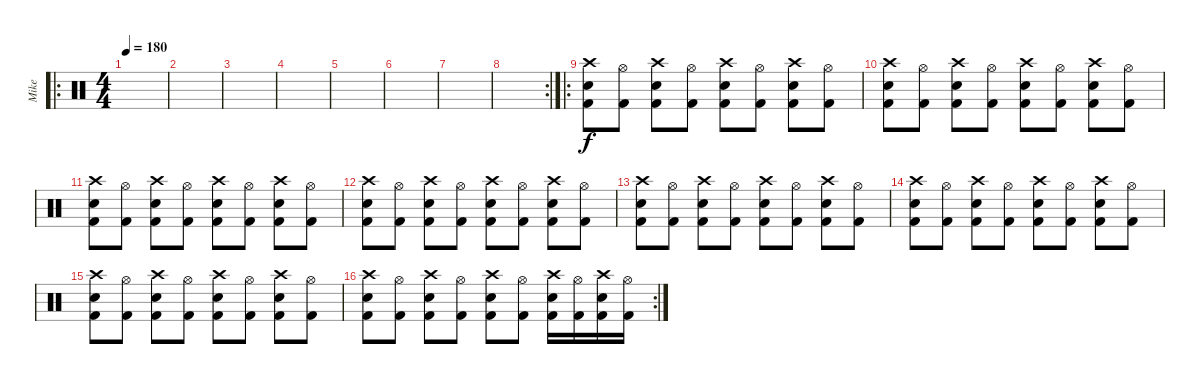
\track ("Mike" "Mike") {instrument percussion}
\staff {score}
\articulation defaults
\ro
\ts (4 4)
\tempo 180
\clef neutral
\ks c
|
|
|
|
|
|
|
\rc 2
|
\ro
("Crash high (hit)" "Electric Snare (hit)" "Kick (hit) 2").8 ("Hi-Hat (open)" "Kick (hit) 2").8 ("Crash high (hit)" "Electric Snare (hit)" "Kick (hit) 2").8 ("Hi-Hat (open)" "Kick (hit) 2").8 ("Crash high (hit)" "Electric Snare (hit)" "Kick (hit) 2").8 ("Hi-Hat (open)" "Kick (hit) 2").8 ("Crash high (hit)" "Electric Snare (hit)" "Kick (hit) 2").8 ("Hi-Hat (open)" "Kick (hit) 2").8 |
("Crash high (hit)" "Electric Snare (hit)" "Kick (hit) 2").8 ("Hi-Hat (open)" "Kick (hit) 2").8 ("Crash high (hit)" "Electric Snare (hit)" "Kick (hit) 2").8 ("Hi-Hat (open)" "Kick (hit) 2").8 ("Crash high (hit)" "Electric Snare (hit)" "Kick (hit) 2").8 ("Hi-Hat (open)" "Kick (hit) 2").8 ("Crash high (hit)" "Electric Snare (hit)" "Kick (hit) 2").8 ("Hi-Hat (open)" "Kick (hit) 2").8 |
("Crash high (hit)" "Electric Snare (hit)" "Kick (hit) 2").8 ("Hi-Hat (open)" "Kick (hit) 2").8 ("Crash high (hit)" "Electric Snare (hit)" "Kick (hit) 2").8 ("Hi-Hat (open)" "Kick (hit) 2").8 ("Crash high (hit)" "Electric Snare (hit)" "Kick (hit) 2").8 ("Hi-Hat (open)" "Kick (hit) 2").8 ("Crash high (hit)" "Electric Snare (hit)" "Kick (hit) 2").8 ("Hi-Hat (open)" "Kick (hit) 2").8 |
("Crash high (hit)" "Electric Snare (hit)" "Kick (hit) 2").8 ("Hi-Hat (open)" "Kick (hit) 2").8 ("Crash high (hit)" "Electric Snare (hit)" "Kick (hit) 2").8 ("Hi-Hat (open)" "Kick (hit) 2").8 ("Crash high (hit)" "Electric Snare (hit)" "Kick (hit) 2").8 ("Hi-Hat (open)" "Kick (hit) 2").8 ("Crash high (hit)" "Electric Snare (hit)" "Kick (hit) 2").8 ("Hi-Hat (open)" "Kick (hit) 2").8 |
("Crash high (hit)" "Electric Snare (hit)" "Kick (hit) 2").8 ("Hi-Hat (open)" "Kick (hit) 2").8 ("Crash high (hit)" "Electric Snare (hit)" "Kick (hit) 2").8 ("Hi-Hat (open)" "Kick (hit) 2").8 ("Crash high (hit)" "Electric Snare (hit)" "Kick (hit) 2").8 ("Hi-Hat (open)" "Kick (hit) 2").8 ("Crash high (hit)" "Electric Snare (hit)" "Kick (hit) 2").8 ("Hi-Hat (open)" "Kick (hit) 2").8 |
("Crash high (hit)" "Electric Snare (hit)" "Kick (hit) 2").8 ("Hi-Hat (open)" "Kick (hit) 2").8 ("Crash high (hit)" "Electric Snare (hit)" "Kick (hit) 2").8 ("Hi-Hat (open)" "Kick (hit) 2").8 ("Crash high (hit)" "Electric Snare (hit)" "Kick (hit) 2").8 ("Hi-Hat (open)" "Kick (hit) 2").8 ("Crash high (hit)" "Electric Snare (hit)" "Kick (hit) 2").8 ("Hi-Hat (open)" "Kick (hit) 2").8 |
("Crash high (hit)" "Electric Snare (hit)" "Kick (hit) 2").8 ("Hi-Hat (open)" "Kick (hit) 2").8 ("Crash high (hit)" "Electric Snare (hit)" "Kick (hit) 2").8 ("Hi-Hat (open)" "Kick (hit) 2").8 ("Crash high (hit)" "Electric Snare (hit)" "Kick (hit) 2").8 ("Hi-Hat (open)" "Kick (hit) 2").8 ("Crash high (hit)" "Electric Snare (hit)" "Kick (hit) 2").8 ("Hi-Hat (open)" "Kick (hit) 2").8 |
\rc 2
("Crash high (hit)" "Electric Snare (hit)" "Kick (hit) 2").8 ("Hi-Hat (open)" "Kick (hit) 2").8 ("Crash high (hit)" "Electric Snare (hit)" "Kick (hit) 2").8 ("Hi-Hat (open)" "Kick (hit) 2").8 ("Crash high (hit)" "Electric Snare (hit)" "Kick (hit) 2").8 ("Hi-Hat (open)" "Kick (hit) 2").8 ("Crash high (hit)" "Electric Snare (hit)" "Kick (hit) 2").16 ("Hi-Hat (open)" "Kick (hit) 2").16 ("Crash high (hit)" "Electric Snare (hit)" "Kick (hit) 2").16 ("Hi-Hat (open)" "Kick (hit) 2").16
